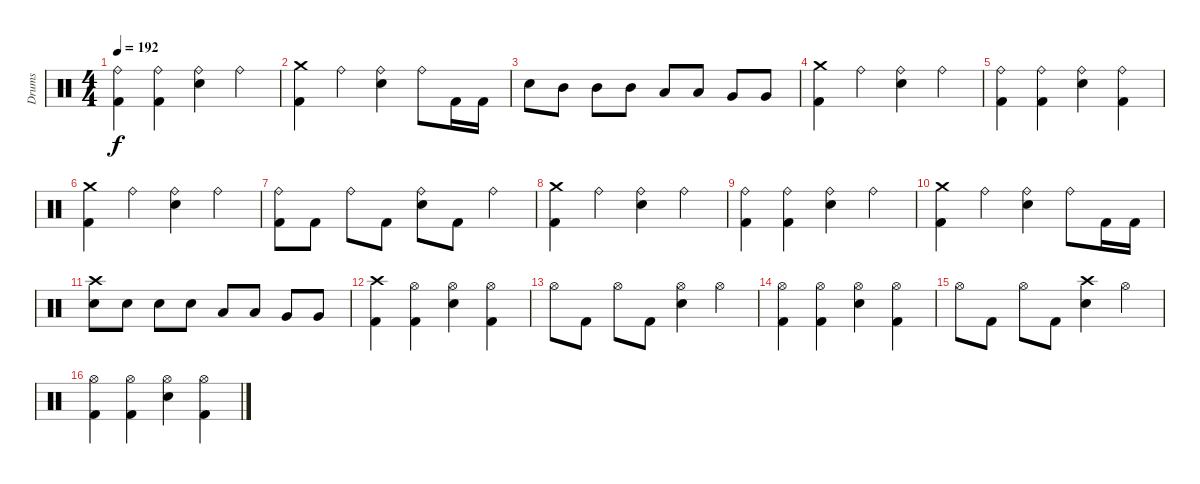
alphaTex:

\track ("Drums" "Drums") {instrument percussion}
\staff {score}
\articulation defaults
\ts (4 4)
\tempo 192
\clef neutral
\ks c
("Ride (bell)" "Kick (hit) 2").4{dy f} ("Ride (bell)" "Kick (hit) 2").4 ("Ride (bell)" "Electric Snare (hit)").4 "Ride (bell)".4 |
("Crash medium (hit)" "Kick (hit) 2").4 "Ride (bell)".4 ("Ride (bell)" "Electric Snare (hit)").4 "Ride (bell)".8 "Kick (hit) 2".16 "Kick (hit) 2".16 |
"Electric Snare (hit)".8 "Mid Tom (hit)".8 "Mid Tom (hit)".8 "Mid Tom (hit)".8 "Low Tom (hit)".8 "Low Tom (hit)".8 "Very Low Tom (hit)".8 "Very Low Tom (hit)".8 |
("Crash medium (hit)" "Kick (hit) 2").4 "Ride (bell)".4 ("Ride (bell)" "Electric Snare (hit)").4 "Ride (bell)".4 |
("Ride (bell)" "Kick (hit) 2").4 ("Ride (bell)" "Kick (hit) 2").4 ("Ride (bell)" "Electric Snare (hit)").4 ("Ride (bell)" "Kick (hit) 2").4 |
("Crash medium (hit)" "Kick (hit) 2").4 "Ride (bell)".4 ("Ride (bell)" "Electric Snare (hit)").4 "Ride (bell)".4 |
("Ride (bell)" "Kick (hit) 2").8 "Kick (hit) 2".8 "Ride (bell)".8 "Kick (hit) 2".8 ("Ride (bell)" "Electric Snare (hit)").8 "Kick (hit) 2".8 "Ride (bell)".4 |
("Crash medium (hit)" "Kick (hit) 2").4 "Ride (bell)".4 ("Ride (bell)" "Electric Snare (hit)").4 "Ride (bell)".4 |
("Ride (bell)" "Kick (hit) 2").4 ("Ride (bell)" "Kick (hit) 2").4 ("Ride (bell)" "Electric Snare (hit)").4 "Ride (bell)".4 |
("Crash medium (hit)" "Kick (hit) 2").4 "Ride (bell)".4 ("Ride (bell)" "Electric Snare (hit)").4 "Ride (bell)".8 "Kick (hit) 2".16 "Kick (hit) 2".16 |
("Crash high (hit)" "Electric Snare (hit)").8 "Electric Snare (hit)".8 "Electric Snare (hit)".8 "Electric Snare (hit)".8 "Low Tom (hit)".8 "Low Tom (hit)".8 "Very Low Tom (hit)".8 "Very Low Tom (hit)".8 |
("Crash high (hit)" "Kick (hit) 2").4 ("Hi-Hat (open)" "Kick (hit) 2").4 ("Hi-Hat (open)" "Electric Snare (hit)").4 ("Hi-Hat (open)" "Kick (hit) 2").4 |
"Hi-Hat (open)".8 "Kick (hit) 2".8 "Hi-Hat (open)".8 "Kick (hit) 2".8 ("Hi-Hat (open)" "Electric Snare (hit)").4 "Hi-Hat (open)".4 |
("Hi-Hat (open)" "Kick (hit) 2").4 ("Hi-Hat (open)" "Kick (hit) 2").4 ("Hi-Hat (open)" "Electric Snare (hit)").4 ("Hi-Hat (open)" "Kick (hit) 2").4 |
"Hi-Hat (open)".8 "Kick (hit) 2".8 "Hi-Hat (open)".8 "Kick (hit) 2".8 ("Crash high (hit)" "Electric Snare (hit)").4 "Hi-Hat (open)".4 |
("Hi-Hat (open)" "Kick (hit) 2").4 ("Hi-Hat (open)" "Kick (hit) 2").4 ("Hi-Hat (open)" "Electric Snare (hit)").4 ("Hi-Hat (open)" "Kick (hit) 2").4
